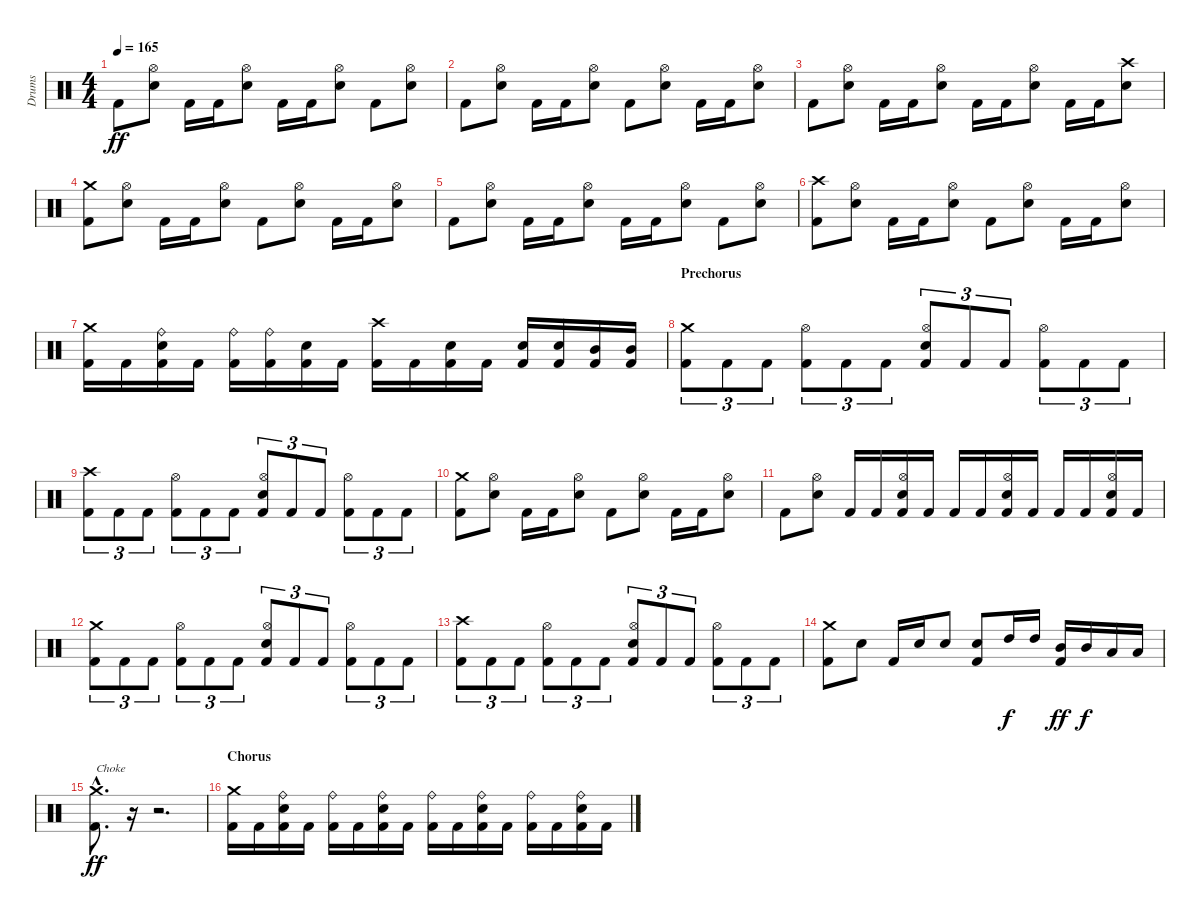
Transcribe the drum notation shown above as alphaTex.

\track ("Drums" "Drums") {instrument percussion}
\staff {score}
\articulation defaults
\ts (4 4)
\tempo 165
\clef neutral
\ks c "Kick (hit) 2".8{dy ff}
("Hi-Hat (open)" "Electric Snare (hit)").8 "Kick (hit) 2".16 "Kick (hit) 2".16 ("Hi-Hat (open)" "Electric Snare (hit)").8 "Kick (hit) 2".16 "Kick (hit) 2".16 ("Hi-Hat (open)" "Electric Snare (hit)").8 "Kick (hit) 2".8 ("Hi-Hat (open)" "Electric Snare (hit)").8 |
"Kick (hit) 2".8 ("Hi-Hat (open)" "Electric Snare (hit)").8 "Kick (hit) 2".16 "Kick (hit) 2".16 ("Hi-Hat (open)" "Electric Snare (hit)").8 "Kick (hit) 2".8 ("Hi-Hat (open)" "Electric Snare (hit)").8 "Kick (hit) 2".16 "Kick (hit) 2".16 ("Hi-Hat (open)" "Electric Snare (hit)").8 |
"Kick (hit) 2".8 ("Hi-Hat (open)" "Electric Snare (hit)").8 "Kick (hit) 2".16 "Kick (hit) 2".16 ("Hi-Hat (open)" "Electric Snare (hit)").8 "Kick (hit) 2".16 "Kick (hit) 2".16 ("Hi-Hat (open)" "Electric Snare (hit)").8 "Kick (hit) 2".16 "Kick (hit) 2".16 ("Crash high (hit)" "Electric Snare (hit)").8 |
("Crash medium (hit)" "Kick (hit) 2").8 ("Hi-Hat (open)" "Electric Snare (hit)").8 "Kick (hit) 2".16 "Kick (hit) 2".16 ("Hi-Hat (open)" "Electric Snare (hit)").8 "Kick (hit) 2".8 ("Hi-Hat (open)" "Electric Snare (hit)").8 "Kick (hit) 2".16 "Kick (hit) 2".16 ("Hi-Hat (open)" "Electric Snare (hit)").8 |
"Kick (hit) 2".8 ("Hi-Hat (open)" "Electric Snare (hit)").8 "Kick (hit) 2".16 "Kick (hit) 2".16 ("Hi-Hat (open)" "Electric Snare (hit)").8 "Kick (hit) 2".16 "Kick (hit) 2".16 ("Hi-Hat (open)" "Electric Snare (hit)").8 "Kick (hit) 2".8 ("Hi-Hat (open)" "Electric Snare (hit)").8 |
("Crash high (hit)" "Kick (hit) 2").8 ("Hi-Hat (open)" "Electric Snare (hit)").8 "Kick (hit) 2".16 "Kick (hit) 2".16 ("Hi-Hat (open)" "Electric Snare (hit)").8 "Kick (hit) 2".8 ("Hi-Hat (open)" "Electric Snare (hit)").8 "Kick (hit) 2".16 "Kick (hit) 2".16 ("Hi-Hat (open)" "Electric Snare (hit)").8 |
("Crash medium (hit)" "Kick (hit) 2").16 "Kick (hit) 2".16 ("Ride (bell)" "Electric Snare (hit)" "Kick (hit) 2").16 "Kick (hit) 2".16 ("Ride (bell)" "Kick (hit) 2").16 ("Ride (bell)" "Kick (hit) 2").16 ("Electric Snare (hit)" "Kick (hit) 2").16 "Kick (hit) 2".16 ("Crash high (hit)" "Kick (hit) 2").16 "Kick (hit) 2".16 ("Electric Snare (hit)" "Kick (hit) 2").16 "Kick (hit) 2".16 ("Electric Snare (hit)" "Kick (hit) 2").16 ("Electric Snare (hit)" "Kick (hit) 2").16 ("Mid Tom (hit)" "Kick (hit) 2").16 ("Mid Tom (hit)" "Kick (hit) 2").16 |
\section ("" "Prechorus")
("Crash medium (hit)" "Kick (hit) 2").8{tu (3 2)} "Kick (hit) 2".8{tu (3 2)} "Kick (hit) 2".8{tu (3 2)} ("Hi-Hat (open)" "Kick (hit) 2").8{tu (3 2)} "Kick (hit) 2".8{tu (3 2)} "Kick (hit) 2".8{tu (3 2)} ("Hi-Hat (open)" "Electric Snare (hit)" "Kick (hit) 2").8{tu (3 2)} "Kick (hit) 2".8{tu (3 2)} "Kick (hit) 2".8{tu (3 2)} ("Hi-Hat (open)" "Kick (hit) 2").8{tu (3 2)} "Kick (hit) 2".8{tu (3 2)} "Kick (hit) 2".8{tu (3 2)} |
("Crash high (hit)" "Kick (hit) 2").8{tu (3 2)} "Kick (hit) 2".8{tu (3 2)} "Kick (hit) 2".8{tu (3 2)} ("Hi-Hat (open)" "Kick (hit) 2").8{tu (3 2)} "Kick (hit) 2".8{tu (3 2)} "Kick (hit) 2".8{tu (3 2)} ("Hi-Hat (open)" "Electric Snare (hit)" "Kick (hit) 2").8{tu (3 2)} "Kick (hit) 2".8{tu (3 2)} "Kick (hit) 2".8{tu (3 2)} ("Hi-Hat (open)" "Kick (hit) 2").8{tu (3 2)} "Kick (hit) 2".8{tu (3 2)} "Kick (hit) 2".8{tu (3 2)} |
("Crash medium (hit)" "Kick (hit) 2").8 ("Hi-Hat (open)" "Electric Snare (hit)").8 "Kick (hit) 2".16 "Kick (hit) 2".16 ("Hi-Hat (open)" "Electric Snare (hit)").8 "Kick (hit) 2".8 ("Hi-Hat (open)" "Electric Snare (hit)").8 "Kick (hit) 2".16 "Kick (hit) 2".16 ("Hi-Hat (open)" "Electric Snare (hit)").8 |
"Kick (hit) 2".8 ("Hi-Hat (open)" "Electric Snare (hit)").8 "Kick (hit) 2".16 "Kick (hit) 2".16 ("Hi-Hat (open)" "Electric Snare (hit)" "Kick (hit) 2").16 "Kick (hit) 2".16 "Kick (hit) 2".16 "Kick (hit) 2".16 ("Hi-Hat (open)" "Electric Snare (hit)" "Kick (hit) 2").16 "Kick (hit) 2".16 "Kick (hit) 2".16 "Kick (hit) 2".16 ("Hi-Hat (open)" "Electric Snare (hit)" "Kick (hit) 2").16 "Kick (hit) 2".16 |
("Crash medium (hit)" "Kick (hit) 2").8{tu (3 2)} "Kick (hit) 2".8{tu (3 2)} "Kick (hit) 2".8{tu (3 2)} ("Hi-Hat (open)" "Kick (hit) 2").8{tu (3 2)} "Kick (hit) 2".8{tu (3 2)} "Kick (hit) 2".8{tu (3 2)} ("Hi-Hat (open)" "Electric Snare (hit)" "Kick (hit) 2").8{tu (3 2)} "Kick (hit) 2".8{tu (3 2)} "Kick (hit) 2".8{tu (3 2)} ("Hi-Hat (open)" "Kick (hit) 2").8{tu (3 2)} "Kick (hit) 2".8{tu (3 2)} "Kick (hit) 2".8{tu (3 2)} |
("Crash high (hit)" "Kick (hit) 2").8{tu (3 2)} "Kick (hit) 2".8{tu (3 2)} "Kick (hit) 2".8{tu (3 2)} ("Hi-Hat (open)" "Kick (hit) 2").8{tu (3 2)} "Kick (hit) 2".8{tu (3 2)} "Kick (hit) 2".8{tu (3 2)} ("Hi-Hat (open)" "Electric Snare (hit)" "Kick (hit) 2").8{tu (3 2)} "Kick (hit) 2".8{tu (3 2)} "Kick (hit) 2".8{tu (3 2)} ("Hi-Hat (open)" "Kick (hit) 2").8{tu (3 2)} "Kick (hit) 2".8{tu (3 2)} "Kick (hit) 2".8{tu (3 2)} |
("Crash medium (hit)" "Kick (hit) 2").8 "Electric Snare (hit)".8 "Kick (hit) 2".16 "Electric Snare (hit)".16 "Electric Snare (hit)".8 ("Electric Snare (hit)" "Kick (hit) 2").8 "High Tom (hit)".16{dy f} "High Tom (hit)".16 ("Mid Tom (hit)" "Kick (hit) 2").16{dy ff} "Mid Tom (hit)".16{dy f} "Low Tom (hit)".16 "Low Tom (hit)".16 |
("Crash medium (hit)"{hac} "Kick (hit) 2"{hac}).8{d txt "Choke" dy ff} r.16{volume 0} r.2{d} |
\section ("" "Chorus")
("Crash medium (hit)" "Kick (hit) 2").16{volume 15} "Kick (hit) 2".16 ("Ride (bell)" "Electric Snare (hit)" "Kick (hit) 2").16 "Kick (hit) 2".16 ("Ride (bell)" "Kick (hit) 2").16 "Kick (hit) 2".16 ("Ride (bell)" "Electric Snare (hit)" "Kick (hit) 2").16 "Kick (hit) 2".16 ("Ride (bell)" "Kick (hit) 2").16 "Kick (hit) 2".16 ("Ride (bell)" "Electric Snare (hit)" "Kick (hit) 2").16 "Kick (hit) 2".16 ("Ride (bell)" "Kick (hit) 2").16 "Kick (hit) 2".16 ("Ride (bell)" "Electric Snare (hit)" "Kick (hit) 2").16 "Kick (hit) 2".16
